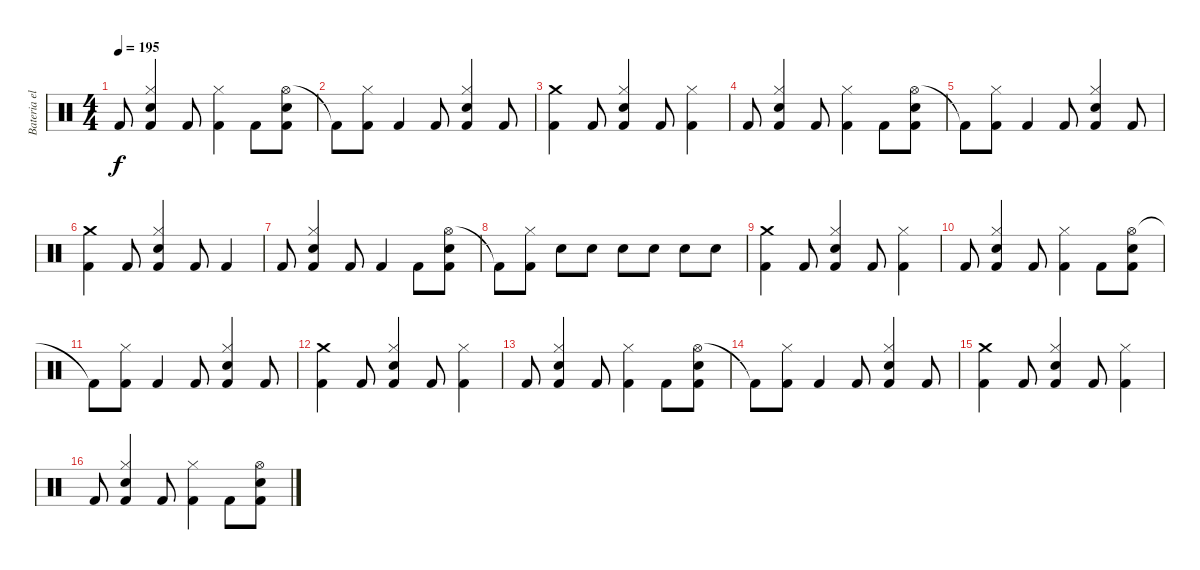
\track ("Bateria electrica" "Bateria el") {instrument percussion}
\staff {score}
\articulation defaults
\ts (4 4)
\tempo 195
\clef neutral
\ks c "Kick (hit) 2".8{dy f}
("Hi-Hat (closed)" "Kick (hit) 2" "Snare (hit) 2").4 "Kick (hit) 2".8 ("Hi-Hat (closed)" "Kick (hit) 2").4 "Kick (hit) 2".8 ("Hi-Hat (open)" "Kick (hit) 2" "Snare (hit) 2").8 |
"Kick (hit) 2"{t}.8 ("Hi-Hat (closed)" "Kick (hit) 2").8 "Kick (hit) 2".4 "Kick (hit) 2".8 ("Hi-Hat (closed)" "Kick (hit) 2" "Snare (hit) 2").4 "Kick (hit) 2".8 |
("Crash medium (hit)" "Kick (hit) 2").4 "Kick (hit) 2".8 ("Hi-Hat (closed)" "Kick (hit) 2" "Snare (hit) 2").4 "Kick (hit) 2".8 ("Hi-Hat (closed)" "Kick (hit) 2").4 |
"Kick (hit) 2".8 ("Hi-Hat (closed)" "Kick (hit) 2" "Snare (hit) 2").4 "Kick (hit) 2".8 ("Hi-Hat (closed)" "Kick (hit) 2").4 "Kick (hit) 2".8 ("Hi-Hat (open)" "Kick (hit) 2" "Snare (hit) 2").8 |
"Kick (hit) 2"{t}.8 ("Hi-Hat (closed)" "Kick (hit) 2").8 "Kick (hit) 2".4 "Kick (hit) 2".8 ("Hi-Hat (closed)" "Kick (hit) 2" "Snare (hit) 2").4 "Kick (hit) 2".8 |
("Crash medium (hit)" "Kick (hit) 2").4 "Kick (hit) 2".8 ("Hi-Hat (closed)" "Kick (hit) 2" "Snare (hit) 2").4 "Kick (hit) 2".8 "Kick (hit) 2".4 |
"Kick (hit) 2".8 ("Hi-Hat (closed)" "Kick (hit) 2" "Snare (hit) 2").4 "Kick (hit) 2".8 "Kick (hit) 2".4 "Kick (hit) 2".8 ("Hi-Hat (open)" "Kick (hit) 2" "Snare (hit) 2").8 |
"Kick (hit) 2"{t}.8 ("Hi-Hat (closed)" "Kick (hit) 2").8 "Snare (hit) 2".8 "Snare (hit) 2".8 "Snare (hit) 2".8 "Snare (hit) 2".8 "Snare (hit) 2".8 "Snare (hit) 2".8 |
("Crash medium (hit)" "Kick (hit) 2").4 "Kick (hit) 2".8 ("Hi-Hat (closed)" "Kick (hit) 2" "Snare (hit) 2").4 "Kick (hit) 2".8 ("Hi-Hat (closed)" "Kick (hit) 2").4 |
"Kick (hit) 2".8 ("Hi-Hat (closed)" "Kick (hit) 2" "Snare (hit) 2").4 "Kick (hit) 2".8 ("Hi-Hat (closed)" "Kick (hit) 2").4 "Kick (hit) 2".8 ("Hi-Hat (open)" "Kick (hit) 2" "Snare (hit) 2").8 |
"Kick (hit) 2"{t}.8 ("Hi-Hat (closed)" "Kick (hit) 2").8 "Kick (hit) 2".4 "Kick (hit) 2".8 ("Hi-Hat (closed)" "Kick (hit) 2" "Snare (hit) 2").4 "Kick (hit) 2".8 |
("Crash medium (hit)" "Kick (hit) 2").4 "Kick (hit) 2".8 ("Hi-Hat (closed)" "Kick (hit) 2" "Snare (hit) 2").4 "Kick (hit) 2".8 ("Hi-Hat (closed)" "Kick (hit) 2").4 |
"Kick (hit) 2".8 ("Hi-Hat (closed)" "Kick (hit) 2" "Snare (hit) 2").4 "Kick (hit) 2".8 ("Hi-Hat (closed)" "Kick (hit) 2").4 "Kick (hit) 2".8 ("Hi-Hat (open)" "Kick (hit) 2" "Snare (hit) 2").8 |
"Kick (hit) 2"{t}.8 ("Hi-Hat (closed)" "Kick (hit) 2").8 "Kick (hit) 2".4 "Kick (hit) 2".8 ("Hi-Hat (closed)" "Kick (hit) 2" "Snare (hit) 2").4 "Kick (hit) 2".8 |
("Crash medium (hit)" "Kick (hit) 2").4 "Kick (hit) 2".8 ("Hi-Hat (closed)" "Kick (hit) 2" "Snare (hit) 2").4 "Kick (hit) 2".8 ("Hi-Hat (closed)" "Kick (hit) 2").4 |
"Kick (hit) 2".8 ("Hi-Hat (closed)" "Kick (hit) 2" "Snare (hit) 2").4 "Kick (hit) 2".8 ("Hi-Hat (closed)" "Kick (hit) 2").4 "Kick (hit) 2".8 ("Hi-Hat (open)" "Kick (hit) 2" "Snare (hit) 2").8
